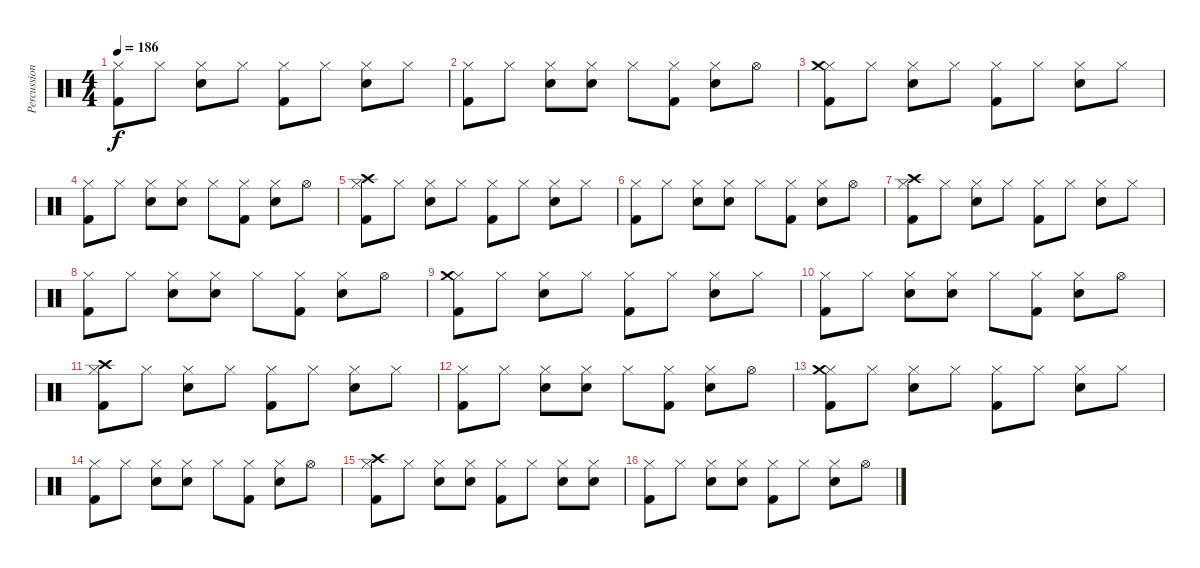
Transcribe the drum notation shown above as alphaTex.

\track ("Percussions" "Percussion") {instrument percussion}
\staff {score}
\articulation defaults
\ts (4 4)
\tempo 186
\clef neutral
\ks c
("Hi-Hat (closed)" "Kick (hit) 2").8{dy f} "Hi-Hat (closed)".8 ("Hi-Hat (closed)" "Electric Snare (hit)").8 "Hi-Hat (closed)".8 ("Hi-Hat (closed)" "Kick (hit) 2").8 "Hi-Hat (closed)".8 ("Hi-Hat (closed)" "Electric Snare (hit)").8 "Hi-Hat (closed)".8 |
("Hi-Hat (closed)" "Kick (hit) 2").8 "Hi-Hat (closed)".8 ("Hi-Hat (closed)" "Electric Snare (hit)").8 ("Hi-Hat (closed)" "Electric Snare (hit)").8 "Hi-Hat (closed)".8 ("Hi-Hat (closed)" "Kick (hit) 2").8 ("Hi-Hat (closed)" "Electric Snare (hit)").8 "Hi-Hat (open)".8 |
("Hi-Hat (closed)" "Crash medium (hit)" "Kick (hit) 2").8 "Hi-Hat (closed)".8 ("Hi-Hat (closed)" "Electric Snare (hit)").8 "Hi-Hat (closed)".8 ("Hi-Hat (closed)" "Kick (hit) 2").8 "Hi-Hat (closed)".8 ("Hi-Hat (closed)" "Electric Snare (hit)").8 "Hi-Hat (closed)".8 |
("Hi-Hat (closed)" "Kick (hit) 2").8 "Hi-Hat (closed)".8 ("Hi-Hat (closed)" "Electric Snare (hit)").8 ("Hi-Hat (closed)" "Electric Snare (hit)").8 "Hi-Hat (closed)".8 ("Hi-Hat (closed)" "Kick (hit) 2").8 ("Hi-Hat (closed)" "Electric Snare (hit)").8 "Hi-Hat (open)".8 |
("Hi-Hat (closed)" "Crash high (hit)" "Kick (hit) 2").8 "Hi-Hat (closed)".8 ("Hi-Hat (closed)" "Electric Snare (hit)").8 "Hi-Hat (closed)".8 ("Hi-Hat (closed)" "Kick (hit) 2").8 "Hi-Hat (closed)".8 ("Hi-Hat (closed)" "Electric Snare (hit)").8 "Hi-Hat (closed)".8 |
("Hi-Hat (closed)" "Kick (hit) 2").8 "Hi-Hat (closed)".8 ("Hi-Hat (closed)" "Electric Snare (hit)").8 ("Hi-Hat (closed)" "Electric Snare (hit)").8 "Hi-Hat (closed)".8 ("Hi-Hat (closed)" "Kick (hit) 2").8 ("Hi-Hat (closed)" "Electric Snare (hit)").8 "Hi-Hat (open)".8 |
("Hi-Hat (closed)" "Crash high (hit)" "Kick (hit) 2").8 "Hi-Hat (closed)".8 ("Hi-Hat (closed)" "Electric Snare (hit)").8 "Hi-Hat (closed)".8 ("Hi-Hat (closed)" "Kick (hit) 2").8 "Hi-Hat (closed)".8 ("Hi-Hat (closed)" "Electric Snare (hit)").8 "Hi-Hat (closed)".8 |
("Hi-Hat (closed)" "Kick (hit) 2").8 "Hi-Hat (closed)".8 ("Hi-Hat (closed)" "Electric Snare (hit)").8 ("Hi-Hat (closed)" "Electric Snare (hit)").8 "Hi-Hat (closed)".8 ("Hi-Hat (closed)" "Kick (hit) 2").8 ("Hi-Hat (closed)" "Electric Snare (hit)").8 "Hi-Hat (open)".8 |
("Hi-Hat (closed)" "Crash medium (hit)" "Kick (hit) 2").8 "Hi-Hat (closed)".8 ("Hi-Hat (closed)" "Electric Snare (hit)").8 "Hi-Hat (closed)".8 ("Hi-Hat (closed)" "Kick (hit) 2").8 "Hi-Hat (closed)".8 ("Hi-Hat (closed)" "Electric Snare (hit)").8 "Hi-Hat (closed)".8 |
("Hi-Hat (closed)" "Kick (hit) 2").8 "Hi-Hat (closed)".8 ("Hi-Hat (closed)" "Electric Snare (hit)").8 ("Hi-Hat (closed)" "Electric Snare (hit)").8 "Hi-Hat (closed)".8 ("Hi-Hat (closed)" "Kick (hit) 2").8 ("Hi-Hat (closed)" "Electric Snare (hit)").8 "Hi-Hat (open)".8 |
("Hi-Hat (closed)" "Crash high (hit)" "Kick (hit) 2").8 "Hi-Hat (closed)".8 ("Hi-Hat (closed)" "Electric Snare (hit)").8 "Hi-Hat (closed)".8 ("Hi-Hat (closed)" "Kick (hit) 2").8 "Hi-Hat (closed)".8 ("Hi-Hat (closed)" "Electric Snare (hit)").8 "Hi-Hat (closed)".8 |
("Hi-Hat (closed)" "Kick (hit) 2").8 "Hi-Hat (closed)".8 ("Hi-Hat (closed)" "Electric Snare (hit)").8 ("Hi-Hat (closed)" "Electric Snare (hit)").8 "Hi-Hat (closed)".8 ("Hi-Hat (closed)" "Kick (hit) 2").8 ("Hi-Hat (closed)" "Electric Snare (hit)").8 "Hi-Hat (open)".8 |
("Hi-Hat (closed)" "Crash medium (hit)" "Kick (hit) 2").8 "Hi-Hat (closed)".8 ("Hi-Hat (closed)" "Electric Snare (hit)").8 "Hi-Hat (closed)".8 ("Hi-Hat (closed)" "Kick (hit) 2").8 "Hi-Hat (closed)".8 ("Hi-Hat (closed)" "Electric Snare (hit)").8 "Hi-Hat (closed)".8 |
("Hi-Hat (closed)" "Kick (hit) 2").8 "Hi-Hat (closed)".8 ("Hi-Hat (closed)" "Electric Snare (hit)").8 ("Hi-Hat (closed)" "Electric Snare (hit)").8 "Hi-Hat (closed)".8 ("Hi-Hat (closed)" "Kick (hit) 2").8 ("Hi-Hat (closed)" "Electric Snare (hit)").8 "Hi-Hat (open)".8 |
("Hi-Hat (closed)" "Crash high (hit)" "Kick (hit) 2").8 "Hi-Hat (closed)".8 ("Hi-Hat (closed)" "Electric Snare (hit)").8 ("Hi-Hat (closed)" "Electric Snare (hit)").8 ("Hi-Hat (closed)" "Kick (hit) 2").8 "Hi-Hat (closed)".8 ("Hi-Hat (closed)" "Electric Snare (hit)").8 ("Hi-Hat (closed)" "Electric Snare (hit)").8 |
("Hi-Hat (closed)" "Kick (hit) 2").8 "Hi-Hat (closed)".8 ("Hi-Hat (closed)" "Electric Snare (hit)").8 ("Hi-Hat (closed)" "Electric Snare (hit)").8 ("Hi-Hat (closed)" "Kick (hit) 2").8 "Hi-Hat (closed)".8 ("Hi-Hat (closed)" "Electric Snare (hit)").8 "Hi-Hat (open)".8
